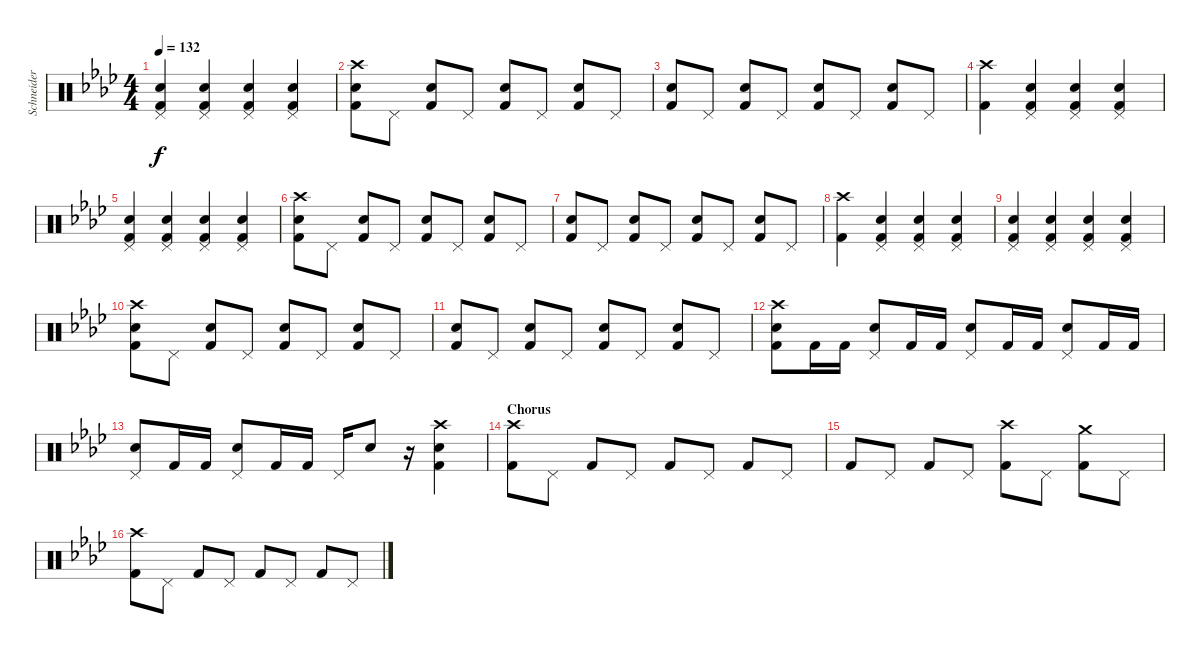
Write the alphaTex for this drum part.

\track ("Schneider" "Schneider") {instrument percussion}
\staff {score}
\articulation defaults
\ts (4 4)
\tempo 132
\clef neutral
\ks fminor
("Pedal Hi-Hat (hit)" "Snare (hit) 2" "Kick (hit) 2").4{dy f} ("Pedal Hi-Hat (hit)" "Snare (hit) 2" "Kick (hit) 2").4 ("Pedal Hi-Hat (hit)" "Snare (hit) 2" "Kick (hit) 2").4 ("Pedal Hi-Hat (hit)" "Snare (hit) 2" "Kick (hit) 2").4 |
("Crash high (hit)" "Snare (hit) 2" "Kick (hit) 2").8 "Pedal Hi-Hat (hit)".8 ("Snare (hit) 2" "Kick (hit) 2").8 "Pedal Hi-Hat (hit)".8 ("Snare (hit) 2" "Kick (hit) 2").8 "Pedal Hi-Hat (hit)".8 ("Snare (hit) 2" "Kick (hit) 2").8 "Pedal Hi-Hat (hit)".8 |
("Snare (hit) 2" "Kick (hit) 2").8 "Pedal Hi-Hat (hit)".8 ("Snare (hit) 2" "Kick (hit) 2").8 "Pedal Hi-Hat (hit)".8 ("Snare (hit) 2" "Kick (hit) 2").8 "Pedal Hi-Hat (hit)".8 ("Snare (hit) 2" "Kick (hit) 2").8 "Pedal Hi-Hat (hit)".8 |
("Crash high (hit)" "Kick (hit) 2").4 ("Pedal Hi-Hat (hit)" "Snare (hit) 2" "Kick (hit) 2").4 ("Pedal Hi-Hat (hit)" "Snare (hit) 2" "Kick (hit) 2").4 ("Pedal Hi-Hat (hit)" "Snare (hit) 2" "Kick (hit) 2").4 |
("Pedal Hi-Hat (hit)" "Snare (hit) 2" "Kick (hit) 2").4 ("Pedal Hi-Hat (hit)" "Snare (hit) 2" "Kick (hit) 2").4 ("Pedal Hi-Hat (hit)" "Snare (hit) 2" "Kick (hit) 2").4 ("Pedal Hi-Hat (hit)" "Snare (hit) 2" "Kick (hit) 2").4 |
("Crash high (hit)" "Snare (hit) 2" "Kick (hit) 2").8 "Pedal Hi-Hat (hit)".8 ("Snare (hit) 2" "Kick (hit) 2").8 "Pedal Hi-Hat (hit)".8 ("Snare (hit) 2" "Kick (hit) 2").8 "Pedal Hi-Hat (hit)".8 ("Snare (hit) 2" "Kick (hit) 2").8 "Pedal Hi-Hat (hit)".8 |
("Snare (hit) 2" "Kick (hit) 2").8 "Pedal Hi-Hat (hit)".8 ("Snare (hit) 2" "Kick (hit) 2").8 "Pedal Hi-Hat (hit)".8 ("Snare (hit) 2" "Kick (hit) 2").8 "Pedal Hi-Hat (hit)".8 ("Snare (hit) 2" "Kick (hit) 2").8 "Pedal Hi-Hat (hit)".8 |
("Crash high (hit)" "Kick (hit) 2").4 ("Pedal Hi-Hat (hit)" "Snare (hit) 2" "Kick (hit) 2").4 ("Pedal Hi-Hat (hit)" "Snare (hit) 2" "Kick (hit) 2").4 ("Pedal Hi-Hat (hit)" "Snare (hit) 2" "Kick (hit) 2").4 |
("Pedal Hi-Hat (hit)" "Snare (hit) 2" "Kick (hit) 2").4 ("Pedal Hi-Hat (hit)" "Snare (hit) 2" "Kick (hit) 2").4 ("Pedal Hi-Hat (hit)" "Snare (hit) 2" "Kick (hit) 2").4 ("Pedal Hi-Hat (hit)" "Snare (hit) 2" "Kick (hit) 2").4 |
("Crash high (hit)" "Snare (hit) 2" "Kick (hit) 2").8 "Pedal Hi-Hat (hit)".8 ("Snare (hit) 2" "Kick (hit) 2").8 "Pedal Hi-Hat (hit)".8 ("Snare (hit) 2" "Kick (hit) 2").8 "Pedal Hi-Hat (hit)".8 ("Snare (hit) 2" "Kick (hit) 2").8 "Pedal Hi-Hat (hit)".8 |
("Snare (hit) 2" "Kick (hit) 2").8 "Pedal Hi-Hat (hit)".8 ("Snare (hit) 2" "Kick (hit) 2").8 "Pedal Hi-Hat (hit)".8 ("Snare (hit) 2" "Kick (hit) 2").8 "Pedal Hi-Hat (hit)".8 ("Snare (hit) 2" "Kick (hit) 2").8 "Pedal Hi-Hat (hit)".8 |
("Crash high (hit)" "Snare (hit) 2" "Kick (hit) 2").8 "Kick (hit) 2".16 "Kick (hit) 2".16 ("Pedal Hi-Hat (hit)" "Snare (hit) 2").8 "Kick (hit) 2".16 "Kick (hit) 2".16 ("Pedal Hi-Hat (hit)" "Snare (hit) 2").8 "Kick (hit) 2".16 "Kick (hit) 2".16 ("Pedal Hi-Hat (hit)" "Snare (hit) 2").8 "Kick (hit) 2".16 "Kick (hit) 2".16 |
("Pedal Hi-Hat (hit)" "Snare (hit) 2").8 "Kick (hit) 2".16 "Kick (hit) 2".16 ("Pedal Hi-Hat (hit)" "Snare (hit) 2").8 "Kick (hit) 2".16 "Kick (hit) 2".16 "Pedal Hi-Hat (hit)".16 "Snare (hit) 2".8 r.16 ("Crash high (hit)" "Snare (hit) 2" "Kick (hit) 2").4 |
\section ("" "Chorus")
("Crash high (hit)" "Kick (hit) 2").8 "Pedal Hi-Hat (hit)".8 "Kick (hit) 2".8 "Pedal Hi-Hat (hit)".8 "Kick (hit) 2".8 "Pedal Hi-Hat (hit)".8 "Kick (hit) 2".8 "Pedal Hi-Hat (hit)".8 |
"Kick (hit) 2".8 "Pedal Hi-Hat (hit)".8 "Kick (hit) 2".8 "Pedal Hi-Hat (hit)".8 ("Crash high (hit)" "Kick (hit) 2").8 "Pedal Hi-Hat (hit)".8 ("Crash medium (hit)" "Kick (hit) 2").8 "Pedal Hi-Hat (hit)".8 |
("Crash high (hit)" "Kick (hit) 2").8 "Pedal Hi-Hat (hit)".8 "Kick (hit) 2".8 "Pedal Hi-Hat (hit)".8 "Kick (hit) 2".8 "Pedal Hi-Hat (hit)".8 "Kick (hit) 2".8 "Pedal Hi-Hat (hit)".8
